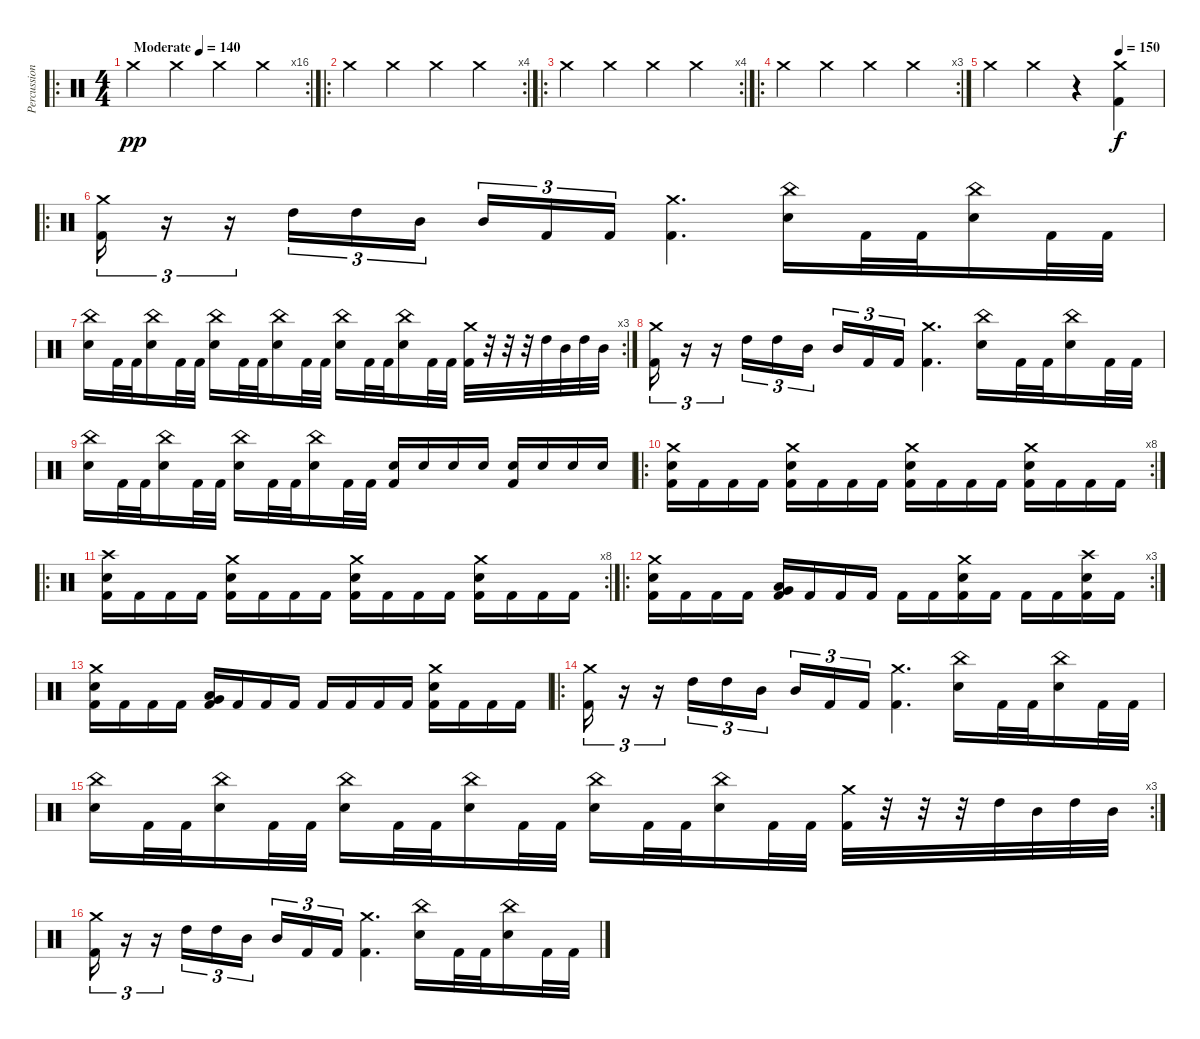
\track ("Percussion" "Percussion") {instrument percussion}
\staff {score}
\articulation defaults
\ro
\rc 16
\ts (4 4)
\tempo (140 "Moderate")
\clef neutral
\ks c "Crash medium (hit)".4{dy pp} "Crash medium (hit)".4 "Crash medium (hit)".4 "Crash medium (hit)".4
|
\ro
\rc 4 "Crash medium (hit)".4 "Crash medium (hit)".4 "Crash medium (hit)".4 "Crash medium (hit)".4
|
\ro
\rc 4 "Crash medium (hit)".4 "Crash medium (hit)".4 "Crash medium (hit)".4 "Crash medium (hit)".4
|
\ro
\rc 3 "Crash medium (hit)".4 "Crash medium (hit)".4 "Crash medium (hit)".4 "Crash medium (hit)".4
|
\tempo (150 0.75)
"Crash medium (hit)".4 "Crash medium (hit)".4 r.4 ("Crash medium (hit)" "Kick (hit) 2").4{dy f} |
\ro
("Crash medium (hit)" "Kick (hit) 2").16{tu (3 2)} r.16{tu (3 2)} r.16{tu (3 2)} "High Tom (hit)".16{tu (3 2)} "High Tom (hit)".16{tu (3 2)} "Mid Tom (hit)".16{tu (3 2)} "Mid Tom (hit)".16{tu (3 2)} "Kick (hit) 2".16{tu (3 2)} "Kick (hit) 2".16{tu (3 2)} ("Crash medium (hit)" "Kick (hit) 2").4{d} ("China (hit)" "Electric Snare (hit)").16 "Kick (hit) 2".32 "Kick (hit) 2".32 ("China (hit)" "Electric Snare (hit)").16 "Kick (hit) 2".32 "Kick (hit) 2".32 |
\rc 3
("China (hit)" "Electric Snare (hit)").16 "Kick (hit) 2".32 "Kick (hit) 2".32 ("China (hit)" "Electric Snare (hit)").16 "Kick (hit) 2".32 "Kick (hit) 2".32 ("China (hit)" "Electric Snare (hit)").16 "Kick (hit) 2".32 "Kick (hit) 2".32 ("China (hit)" "Electric Snare (hit)").16 "Kick (hit) 2".32 "Kick (hit) 2".32 ("China (hit)" "Electric Snare (hit)").16 "Kick (hit) 2".32 "Kick (hit) 2".32 ("China (hit)" "Electric Snare (hit)").16 "Kick (hit) 2".32 "Kick (hit) 2".32 ("Crash medium (hit)" "Kick (hit) 2").32 r.32 r.32 r.32 "High Tom (hit)".32 "Mid Tom (hit)".32 "High Tom (hit)".32 "Mid Tom (hit)".32 |
("Crash medium (hit)" "Kick (hit) 2").16{tu (3 2)} r.16{tu (3 2)} r.16{tu (3 2)} "High Tom (hit)".16{tu (3 2)} "High Tom (hit)".16{tu (3 2)} "Mid Tom (hit)".16{tu (3 2)} "Mid Tom (hit)".16{tu (3 2)} "Kick (hit) 2".16{tu (3 2)} "Kick (hit) 2".16{tu (3 2)} ("Crash medium (hit)" "Kick (hit) 2").4{d} ("China (hit)" "Electric Snare (hit)").16 "Kick (hit) 2".32 "Kick (hit) 2".32 ("China (hit)" "Electric Snare (hit)").16 "Kick (hit) 2".32 "Kick (hit) 2".32 |
("China (hit)" "Electric Snare (hit)").16 "Kick (hit) 2".32 "Kick (hit) 2".32 ("China (hit)" "Electric Snare (hit)").16 "Kick (hit) 2".32 "Kick (hit) 2".32 ("China (hit)" "Electric Snare (hit)").16 "Kick (hit) 2".32 "Kick (hit) 2".32 ("China (hit)" "Electric Snare (hit)").16 "Kick (hit) 2".32 "Kick (hit) 2".32 ("Electric Snare (hit)" "Kick (hit) 2").16 "Electric Snare (hit)".16 "Electric Snare (hit)".16 "Electric Snare (hit)".16 ("Electric Snare (hit)" "Kick (hit) 2").16 "Electric Snare (hit)".16 "Electric Snare (hit)".16 "Electric Snare (hit)".16 |
\ro
\rc 8
("Crash medium (hit)" "Electric Snare (hit)" "Kick (hit) 2").16 "Kick (hit) 2".16 "Kick (hit) 2".16 "Kick (hit) 2".16 ("Crash medium (hit)" "Electric Snare (hit)" "Kick (hit) 2").16 "Kick (hit) 2".16 "Kick (hit) 2".16 "Kick (hit) 2".16 ("Crash medium (hit)" "Electric Snare (hit)" "Kick (hit) 2").16 "Kick (hit) 2".16 "Kick (hit) 2".16 "Kick (hit) 2".16 ("Crash medium (hit)" "Electric Snare (hit)" "Kick (hit) 2").16 "Kick (hit) 2".16 "Kick (hit) 2".16 "Kick (hit) 2".16 |
\ro
\rc 8
("Crash high (hit)" "Electric Snare (hit)" "Kick (hit) 2").16 "Kick (hit) 2".16 "Kick (hit) 2".16 "Kick (hit) 2".16 ("Crash medium (hit)" "Electric Snare (hit)" "Kick (hit) 2").16 "Kick (hit) 2".16 "Kick (hit) 2".16 "Kick (hit) 2".16 ("Crash medium (hit)" "Electric Snare (hit)" "Kick (hit) 2").16 "Kick (hit) 2".16 "Kick (hit) 2".16 "Kick (hit) 2".16 ("Crash medium (hit)" "Electric Snare (hit)" "Kick (hit) 2").16 "Kick (hit) 2".16 "Kick (hit) 2".16 "Kick (hit) 2".16 |
\ro
\rc 3
("Crash medium (hit)" "Electric Snare (hit)" "Kick (hit) 2").16 "Kick (hit) 2".16 "Kick (hit) 2".16 "Kick (hit) 2".16 ("Very Low Tom (hit)" "Low Tom (hit)" "Kick (hit) 2").16 "Kick (hit) 2".16 "Kick (hit) 2".16 "Kick (hit) 2".16 "Kick (hit) 2".16 "Kick (hit) 2".16 ("Crash medium (hit)" "Electric Snare (hit)" "Kick (hit) 2").16 "Kick (hit) 2".16 "Kick (hit) 2".16 "Kick (hit) 2".16 ("Crash high (hit)" "Electric Snare (hit)" "Kick (hit) 2").16 "Kick (hit) 2".16 |
("Crash medium (hit)" "Electric Snare (hit)" "Kick (hit) 2").16 "Kick (hit) 2".16 "Kick (hit) 2".16 "Kick (hit) 2".16 ("Very Low Tom (hit)" "Low Tom (hit)" "Kick (hit) 2").16 "Kick (hit) 2".16 "Kick (hit) 2".16 "Kick (hit) 2".16 "Kick (hit) 2".16 "Kick (hit) 2".16 "Kick (hit) 2".16 "Kick (hit) 2".16 ("Crash medium (hit)" "Electric Snare (hit)" "Kick (hit) 2").16 "Kick (hit) 2".16 "Kick (hit) 2".16 "Kick (hit) 2".16 |
\ro
("Crash medium (hit)" "Kick (hit) 2").16{tu (3 2)} r.16{tu (3 2)} r.16{tu (3 2)} "High Tom (hit)".16{tu (3 2)} "High Tom (hit)".16{tu (3 2)} "Mid Tom (hit)".16{tu (3 2)} "Mid Tom (hit)".16{tu (3 2)} "Kick (hit) 2".16{tu (3 2)} "Kick (hit) 2".16{tu (3 2)} ("Crash medium (hit)" "Kick (hit) 2").4{d} ("China (hit)" "Electric Snare (hit)").16 "Kick (hit) 2".32 "Kick (hit) 2".32 ("China (hit)" "Electric Snare (hit)").16 "Kick (hit) 2".32 "Kick (hit) 2".32 |
\rc 3
("China (hit)" "Electric Snare (hit)").16 "Kick (hit) 2".32 "Kick (hit) 2".32 ("China (hit)" "Electric Snare (hit)").16 "Kick (hit) 2".32 "Kick (hit) 2".32 ("China (hit)" "Electric Snare (hit)").16 "Kick (hit) 2".32 "Kick (hit) 2".32 ("China (hit)" "Electric Snare (hit)").16 "Kick (hit) 2".32 "Kick (hit) 2".32 ("China (hit)" "Electric Snare (hit)").16 "Kick (hit) 2".32 "Kick (hit) 2".32 ("China (hit)" "Electric Snare (hit)").16 "Kick (hit) 2".32 "Kick (hit) 2".32 ("Crash medium (hit)" "Kick (hit) 2").32 r.32 r.32 r.32 "High Tom (hit)".32 "Mid Tom (hit)".32 "High Tom (hit)".32 "Mid Tom (hit)".32 |
("Crash medium (hit)" "Kick (hit) 2").16{tu (3 2)} r.16{tu (3 2)} r.16{tu (3 2)} "High Tom (hit)".16{tu (3 2)} "High Tom (hit)".16{tu (3 2)} "Mid Tom (hit)".16{tu (3 2)} "Mid Tom (hit)".16{tu (3 2)} "Kick (hit) 2".16{tu (3 2)} "Kick (hit) 2".16{tu (3 2)} ("Crash medium (hit)" "Kick (hit) 2").4{d} ("China (hit)" "Electric Snare (hit)").16 "Kick (hit) 2".32 "Kick (hit) 2".32 ("China (hit)" "Electric Snare (hit)").16 "Kick (hit) 2".32 "Kick (hit) 2".32
